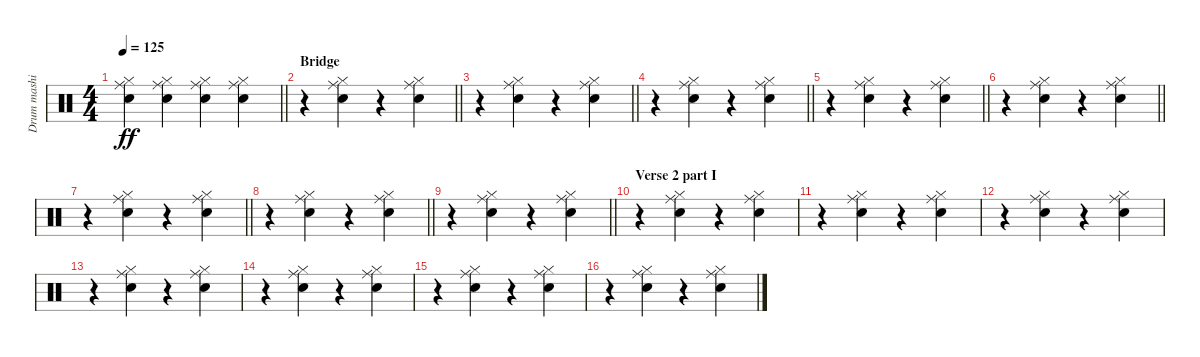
\track ("Drum mashine" "Drum mashi") {instrument percussion}
\staff
\articulation defaults
\ts (4 4)
\tempo 125
\clef neutral
\barLineRight lightlight
\ks c
("Ride (middle)" "Electric Snare (hit)" "Hi-Hat (closed)").4{dy ff} ("Ride (middle)" "Electric Snare (hit)" "Hi-Hat (closed)").4 ("Ride (middle)" "Electric Snare (hit)" "Hi-Hat (closed)").4 ("Ride (middle)" "Electric Snare (hit)" "Hi-Hat (closed)").4 |
\section ("" "Bridge")
\barLineRight lightlight
r.4 ("Ride (middle)" "Electric Snare (hit)" "Hi-Hat (closed)").4 r.4 ("Ride (middle)" "Electric Snare (hit)" "Hi-Hat (closed)").4 |
\barLineRight lightlight
r.4 ("Ride (middle)" "Electric Snare (hit)" "Hi-Hat (closed)").4 r.4 ("Ride (middle)" "Electric Snare (hit)" "Hi-Hat (closed)").4 |
\barLineRight lightlight
r.4 ("Ride (middle)" "Electric Snare (hit)" "Hi-Hat (closed)").4 r.4 ("Ride (middle)" "Electric Snare (hit)" "Hi-Hat (closed)").4 |
\barLineRight lightlight
r.4 ("Ride (middle)" "Electric Snare (hit)" "Hi-Hat (closed)").4 r.4 ("Ride (middle)" "Electric Snare (hit)" "Hi-Hat (closed)").4 |
\barLineRight lightlight
r.4 ("Ride (middle)" "Electric Snare (hit)" "Hi-Hat (closed)").4 r.4 ("Ride (middle)" "Electric Snare (hit)" "Hi-Hat (closed)").4 |
\barLineRight lightlight
r.4 ("Ride (middle)" "Electric Snare (hit)" "Hi-Hat (closed)").4 r.4 ("Ride (middle)" "Electric Snare (hit)" "Hi-Hat (closed)").4 |
\barLineRight lightlight
r.4 ("Ride (middle)" "Electric Snare (hit)" "Hi-Hat (closed)").4 r.4 ("Ride (middle)" "Electric Snare (hit)" "Hi-Hat (closed)").4 |
\barLineRight lightlight
r.4 ("Ride (middle)" "Electric Snare (hit)" "Hi-Hat (closed)").4 r.4 ("Ride (middle)" "Electric Snare (hit)" "Hi-Hat (closed)").4 |
\section ("" "Verse 2 part I")
r.4 ("Ride (middle)" "Electric Snare (hit)" "Hi-Hat (closed)").4 r.4 ("Ride (middle)" "Electric Snare (hit)" "Hi-Hat (closed)").4 |
r.4 ("Ride (middle)" "Electric Snare (hit)" "Hi-Hat (closed)").4 r.4 ("Ride (middle)" "Electric Snare (hit)" "Hi-Hat (closed)").4 |
r.4 ("Ride (middle)" "Electric Snare (hit)" "Hi-Hat (closed)").4 r.4 ("Ride (middle)" "Electric Snare (hit)" "Hi-Hat (closed)").4 |
r.4 ("Ride (middle)" "Electric Snare (hit)" "Hi-Hat (closed)").4 r.4 ("Ride (middle)" "Electric Snare (hit)" "Hi-Hat (closed)").4 |
r.4 ("Ride (middle)" "Electric Snare (hit)" "Hi-Hat (closed)").4 r.4 ("Ride (middle)" "Electric Snare (hit)" "Hi-Hat (closed)").4 |
r.4 ("Ride (middle)" "Electric Snare (hit)" "Hi-Hat (closed)").4 r.4 ("Ride (middle)" "Electric Snare (hit)" "Hi-Hat (closed)").4 |
r.4 ("Ride (middle)" "Electric Snare (hit)" "Hi-Hat (closed)").4 r.4 ("Ride (middle)" "Electric Snare (hit)" "Hi-Hat (closed)").4
